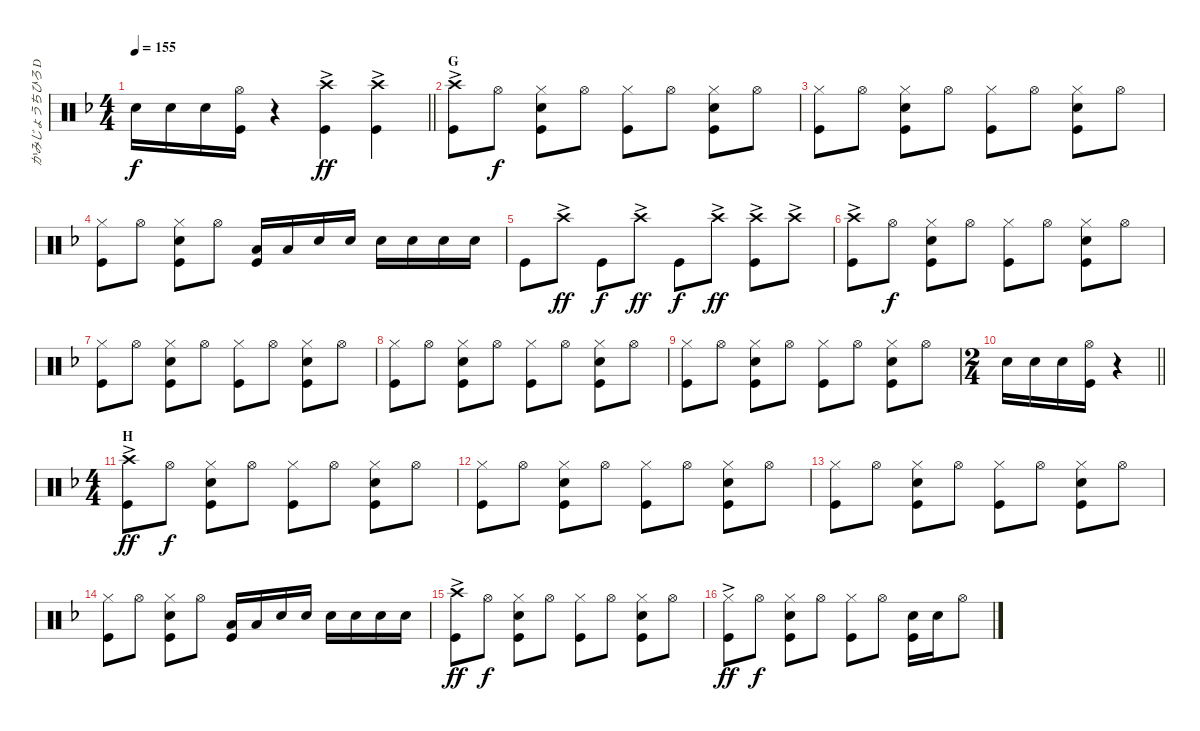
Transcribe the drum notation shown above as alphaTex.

\track ("かみじょうちひろ DRUMS" "かみじょうちひろ D") {instrument percussion}
\staff {score}
\articulation defaults
\ts (4 4)
\tempo 155
\clef neutral
\barLineRight lightlight
\ks f "Snare (hit) 2".16{dy f} "Snare (hit) 2".16 "Snare (hit) 2".16
("Hi-Hat (open)" "Kick (hit)").16 r.4 ("Crash high (hit)"{ac} "Kick (hit)").4{dy ff} ("Crash high (hit)"{ac} "Kick (hit)").4 |
\section ("" "G")
("Crash high (hit)"{ac} "Kick (hit)").8 "Hi-Hat (open)".8{dy f} ("Hi-Hat (closed)" "Snare (hit) 2" "Kick (hit)").8 "Hi-Hat (open)".8 ("Hi-Hat (closed)" "Kick (hit)").8 "Hi-Hat (open)".8 ("Hi-Hat (closed)" "Snare (hit) 2" "Kick (hit)").8 "Hi-Hat (open)".8 |
("Hi-Hat (closed)" "Kick (hit)").8 "Hi-Hat (open)".8 ("Hi-Hat (closed)" "Snare (hit) 2" "Kick (hit)").8 "Hi-Hat (open)".8 ("Hi-Hat (closed)" "Kick (hit)").8 "Hi-Hat (open)".8 ("Hi-Hat (closed)" "Snare (hit) 2" "Kick (hit)").8 "Hi-Hat (open)".8 |
("Hi-Hat (closed)" "Kick (hit)").8 "Hi-Hat (open)".8 ("Hi-Hat (closed)" "Snare (hit) 2" "Kick (hit)").8 "Hi-Hat (open)".8 ("Low Tom (hit)" "Kick (hit)").16 "Low Tom (hit)".16 "Snare (hit) 2".16 "Snare (hit) 2".16 "Snare (hit) 2".16 "Snare (hit) 2".16 "Snare (hit) 2".16 "Snare (hit) 2".16 |
"Kick (hit)".8 "Crash high (hit)"{ac}.8{dy ff} "Kick (hit)".8{dy f} "Crash high (hit)"{ac}.8{dy ff} "Kick (hit)".8{dy f} "Crash high (hit)"{ac}.8{dy ff} ("Crash high (hit)"{ac} "Kick (hit)").8 "Crash high (hit)"{ac}.8 |
("Crash high (hit)"{ac} "Kick (hit)").8 "Hi-Hat (open)".8{dy f} ("Hi-Hat (closed)" "Snare (hit) 2" "Kick (hit)").8 "Hi-Hat (open)".8 ("Hi-Hat (closed)" "Kick (hit)").8 "Hi-Hat (open)".8 ("Hi-Hat (closed)" "Snare (hit) 2" "Kick (hit)").8 "Hi-Hat (open)".8 |
("Hi-Hat (closed)" "Kick (hit)").8 "Hi-Hat (open)".8 ("Hi-Hat (closed)" "Snare (hit) 2" "Kick (hit)").8 "Hi-Hat (open)".8 ("Hi-Hat (closed)" "Kick (hit)").8 "Hi-Hat (open)".8 ("Hi-Hat (closed)" "Snare (hit) 2" "Kick (hit)").8 "Hi-Hat (open)".8 |
("Hi-Hat (closed)" "Kick (hit)").8 "Hi-Hat (open)".8 ("Hi-Hat (closed)" "Snare (hit) 2" "Kick (hit)").8 "Hi-Hat (open)".8 ("Hi-Hat (closed)" "Kick (hit)").8 "Hi-Hat (open)".8 ("Hi-Hat (closed)" "Snare (hit) 2" "Kick (hit)").8 "Hi-Hat (open)".8 |
("Hi-Hat (closed)" "Kick (hit)").8 "Hi-Hat (open)".8 ("Hi-Hat (closed)" "Snare (hit) 2" "Kick (hit)").8 "Hi-Hat (open)".8 ("Hi-Hat (closed)" "Kick (hit)").8 "Hi-Hat (open)".8 ("Hi-Hat (closed)" "Snare (hit) 2" "Kick (hit)").8 "Hi-Hat (open)".8 |
\ts (2 4)
\barLineRight lightlight "Snare (hit) 2".16 "Snare (hit) 2".16 "Snare (hit) 2".16
("Hi-Hat (open)" "Kick (hit)").16 r.4 |
\ts (4 4)
\section ("" "H")
("Crash high (hit)"{ac} "Kick (hit)").8{dy ff} "Hi-Hat (open)".8{dy f} ("Hi-Hat (closed)" "Snare (hit) 2" "Kick (hit)").8 "Hi-Hat (open)".8 ("Hi-Hat (closed)" "Kick (hit)").8 "Hi-Hat (open)".8 ("Hi-Hat (closed)" "Snare (hit) 2" "Kick (hit)").8 "Hi-Hat (open)".8 |
("Hi-Hat (closed)" "Kick (hit)").8 "Hi-Hat (open)".8 ("Hi-Hat (closed)" "Snare (hit) 2" "Kick (hit)").8 "Hi-Hat (open)".8 ("Hi-Hat (closed)" "Kick (hit)").8 "Hi-Hat (open)".8 ("Hi-Hat (closed)" "Snare (hit) 2" "Kick (hit)").8 "Hi-Hat (open)".8 |
("Hi-Hat (closed)" "Kick (hit)").8 "Hi-Hat (open)".8 ("Hi-Hat (closed)" "Snare (hit) 2" "Kick (hit)").8 "Hi-Hat (open)".8 ("Hi-Hat (closed)" "Kick (hit)").8 "Hi-Hat (open)".8 ("Hi-Hat (closed)" "Snare (hit) 2" "Kick (hit)").8 "Hi-Hat (open)".8 |
("Hi-Hat (closed)" "Kick (hit)").8 "Hi-Hat (open)".8 ("Hi-Hat (closed)" "Snare (hit) 2" "Kick (hit)").8 "Hi-Hat (open)".8 ("Low Tom (hit)" "Kick (hit)").16 "Low Tom (hit)".16 "Snare (hit) 2".16 "Snare (hit) 2".16 "Snare (hit) 2".16 "Snare (hit) 2".16 "Snare (hit) 2".16 "Snare (hit) 2".16 |
("Crash high (hit)"{ac} "Kick (hit)").8{dy ff} "Hi-Hat (open)".8{dy f} ("Hi-Hat (closed)" "Snare (hit) 2" "Kick (hit)").8 "Hi-Hat (open)".8 ("Hi-Hat (closed)" "Kick (hit)").8 "Hi-Hat (open)".8 ("Hi-Hat (closed)" "Snare (hit) 2" "Kick (hit)").8 "Hi-Hat (open)".8 |
("Hi-Hat (closed)"{ac} "Kick (hit)").8{dy ff} "Hi-Hat (open)".8{dy f} ("Hi-Hat (closed)" "Snare (hit) 2" "Kick (hit)").8 "Hi-Hat (open)".8 ("Hi-Hat (closed)" "Kick (hit)").8 "Hi-Hat (open)".8 ("Snare (hit) 2" "Kick (hit)").16 "Snare (hit) 2".16 "Hi-Hat (open)".8
